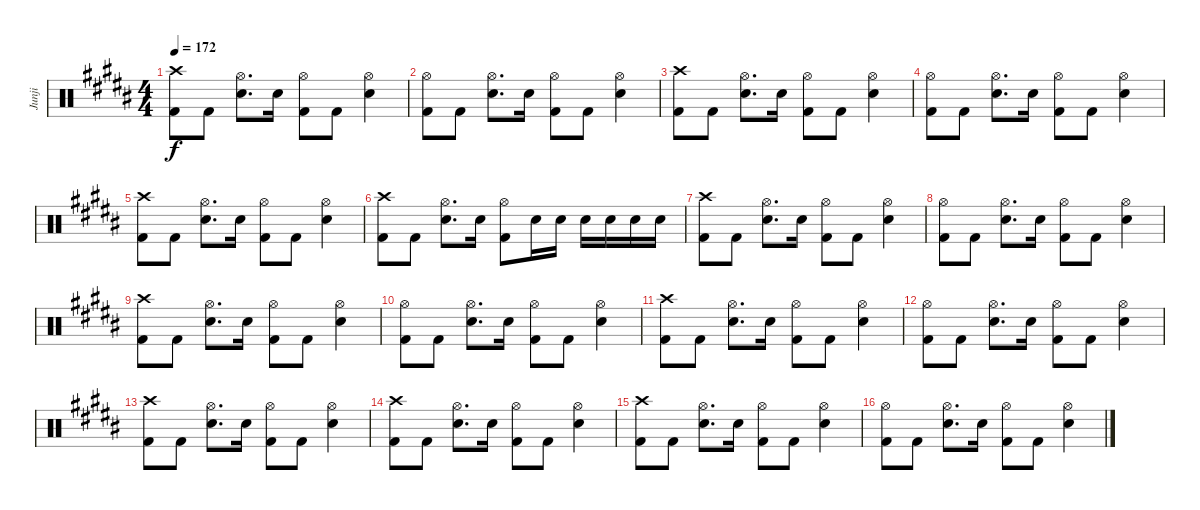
\track ("Junji" "Junji") {instrument percussion}
\staff {score}
\articulation defaults
\ts (4 4)
\tempo 172
\clef neutral
\ks b
("Crash high (hit)" "Kick (hit) 2").8{dy f} "Kick (hit) 2".8 ("Hi-Hat (open)" "Snare (hit) 2").8{d} "Snare (hit) 2".16 ("Hi-Hat (open)" "Kick (hit) 2").8 "Kick (hit) 2".8 ("Hi-Hat (open)" "Snare (hit) 2").4 |
("Hi-Hat (open)" "Kick (hit) 2").8 "Kick (hit) 2".8 ("Hi-Hat (open)" "Snare (hit) 2").8{d} "Snare (hit) 2".16 ("Hi-Hat (open)" "Kick (hit) 2").8 "Kick (hit) 2".8 ("Hi-Hat (open)" "Snare (hit) 2").4 |
("Crash high (hit)" "Kick (hit) 2").8 "Kick (hit) 2".8 ("Hi-Hat (open)" "Snare (hit) 2").8{d} "Snare (hit) 2".16 ("Hi-Hat (open)" "Kick (hit) 2").8 "Kick (hit) 2".8 ("Hi-Hat (open)" "Snare (hit) 2").4 |
("Hi-Hat (open)" "Kick (hit) 2").8 "Kick (hit) 2".8 ("Hi-Hat (open)" "Snare (hit) 2").8{d} "Snare (hit) 2".16 ("Hi-Hat (open)" "Kick (hit) 2").8 "Kick (hit) 2".8 ("Hi-Hat (open)" "Snare (hit) 2").4 |
("Crash high (hit)" "Kick (hit) 2").8 "Kick (hit) 2".8 ("Hi-Hat (open)" "Snare (hit) 2").8{d} "Snare (hit) 2".16 ("Hi-Hat (open)" "Kick (hit) 2").8 "Kick (hit) 2".8 ("Hi-Hat (open)" "Snare (hit) 2").4 |
("Crash high (hit)" "Kick (hit) 2").8 "Kick (hit) 2".8 ("Hi-Hat (open)" "Snare (hit) 2").8{d} "Snare (hit) 2".16 ("Hi-Hat (open)" "Kick (hit) 2").8 "Snare (hit) 2".16 "Snare (hit) 2".16 "Snare (hit) 2".16 "Snare (hit) 2".16 "Snare (hit) 2".16 "Snare (hit) 2".16 |
("Crash high (hit)" "Kick (hit) 2").8 "Kick (hit) 2".8 ("Hi-Hat (open)" "Snare (hit) 2").8{d} "Snare (hit) 2".16 ("Hi-Hat (open)" "Kick (hit) 2").8 "Kick (hit) 2".8 ("Hi-Hat (open)" "Snare (hit) 2").4 |
("Hi-Hat (open)" "Kick (hit) 2").8 "Kick (hit) 2".8 ("Hi-Hat (open)" "Snare (hit) 2").8{d} "Snare (hit) 2".16 ("Hi-Hat (open)" "Kick (hit) 2").8 "Kick (hit) 2".8 ("Hi-Hat (open)" "Snare (hit) 2").4 |
("Crash high (hit)" "Kick (hit) 2").8 "Kick (hit) 2".8 ("Hi-Hat (open)" "Snare (hit) 2").8{d} "Snare (hit) 2".16 ("Hi-Hat (open)" "Kick (hit) 2").8 "Kick (hit) 2".8 ("Hi-Hat (open)" "Snare (hit) 2").4 |
("Hi-Hat (open)" "Kick (hit) 2").8 "Kick (hit) 2".8 ("Hi-Hat (open)" "Snare (hit) 2").8{d} "Snare (hit) 2".16 ("Hi-Hat (open)" "Kick (hit) 2").8 "Kick (hit) 2".8 ("Hi-Hat (open)" "Snare (hit) 2").4 |
("Crash high (hit)" "Kick (hit) 2").8 "Kick (hit) 2".8 ("Hi-Hat (open)" "Snare (hit) 2").8{d} "Snare (hit) 2".16 ("Hi-Hat (open)" "Kick (hit) 2").8 "Kick (hit) 2".8 ("Hi-Hat (open)" "Snare (hit) 2").4 |
("Hi-Hat (open)" "Kick (hit) 2").8 "Kick (hit) 2".8 ("Hi-Hat (open)" "Snare (hit) 2").8{d} "Snare (hit) 2".16 ("Hi-Hat (open)" "Kick (hit) 2").8 "Kick (hit) 2".8 ("Hi-Hat (open)" "Snare (hit) 2").4 |
("Crash high (hit)" "Kick (hit) 2").8 "Kick (hit) 2".8 ("Hi-Hat (open)" "Snare (hit) 2").8{d} "Snare (hit) 2".16 ("Hi-Hat (open)" "Kick (hit) 2").8 "Kick (hit) 2".8 ("Hi-Hat (open)" "Snare (hit) 2").4 |
("Crash high (hit)" "Kick (hit) 2").8 "Kick (hit) 2".8 ("Hi-Hat (open)" "Snare (hit) 2").8{d} "Snare (hit) 2".16 ("Hi-Hat (open)" "Kick (hit) 2").8 "Kick (hit) 2".8 ("Hi-Hat (open)" "Snare (hit) 2").4 |
("Crash high (hit)" "Kick (hit) 2").8 "Kick (hit) 2".8 ("Hi-Hat (open)" "Snare (hit) 2").8{d} "Snare (hit) 2".16 ("Hi-Hat (open)" "Kick (hit) 2").8 "Kick (hit) 2".8 ("Hi-Hat (open)" "Snare (hit) 2").4 |
("Hi-Hat (open)" "Kick (hit) 2").8 "Kick (hit) 2".8 ("Hi-Hat (open)" "Snare (hit) 2").8{d} "Snare (hit) 2".16 ("Hi-Hat (open)" "Kick (hit) 2").8 "Kick (hit) 2".8 ("Hi-Hat (open)" "Snare (hit) 2").4
